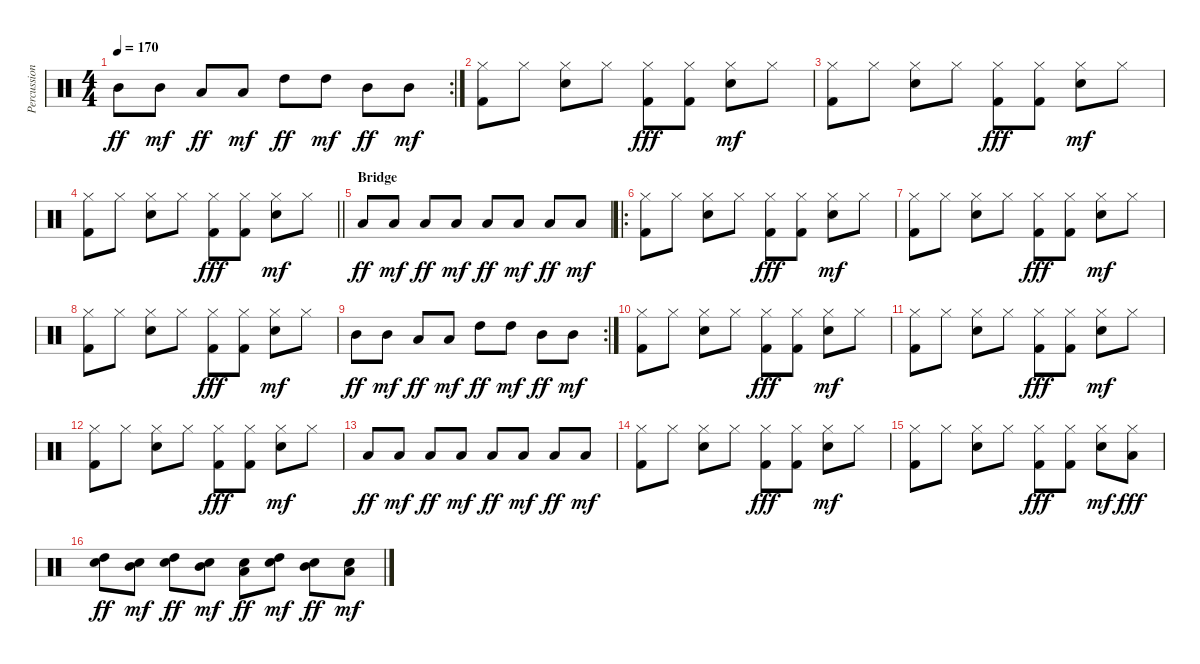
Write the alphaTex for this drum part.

\track ("Percussion" "Percussion") {instrument percussion}
\staff {score}
\articulation defaults
\rc 2
\ts (4 4)
\tempo 170
\clef neutral
\ks c "Mid Tom (hit)".8{dy ff} "Mid Tom (hit)".8{dy mf} "Low Tom (hit)".8{dy ff} "Low Tom (hit)".8{dy mf} "High Tom (hit)".8{dy ff} "High Tom (hit)".8{dy mf} "Mid Tom (hit)".8{dy ff} "Mid Tom (hit)".8{dy mf}
|
("Kick (hit) 2" "Hi-Hat (closed)").8 "Hi-Hat (closed)".8 ("Hi-Hat (closed)" "Electric Snare (hit)").8 "Hi-Hat (closed)".8 ("Hi-Hat (closed)" "Kick (hit) 2").8{dy fff} ("Hi-Hat (closed)" "Kick (hit) 2").8 ("Hi-Hat (closed)" "Electric Snare (hit)").8{dy mf} "Hi-Hat (closed)".8 |
("Kick (hit) 2" "Hi-Hat (closed)").8 "Hi-Hat (closed)".8 ("Hi-Hat (closed)" "Electric Snare (hit)").8 "Hi-Hat (closed)".8 ("Hi-Hat (closed)" "Kick (hit) 2").8{dy fff} ("Hi-Hat (closed)" "Kick (hit) 2").8 ("Hi-Hat (closed)" "Electric Snare (hit)").8{dy mf} "Hi-Hat (closed)".8 |
\barLineRight lightlight
("Kick (hit) 2" "Hi-Hat (closed)").8 "Hi-Hat (closed)".8 ("Hi-Hat (closed)" "Electric Snare (hit)").8 "Hi-Hat (closed)".8 ("Hi-Hat (closed)" "Kick (hit) 2").8{dy fff} ("Hi-Hat (closed)" "Kick (hit) 2").8 ("Hi-Hat (closed)" "Electric Snare (hit)").8{dy mf} "Hi-Hat (closed)".8 |
\section ("" "Bridge")
"Low Tom (hit)".8{dy ff} "Low Tom (hit)".8{dy mf} "Low Tom (hit)".8{dy ff} "Low Tom (hit)".8{dy mf} "Low Tom (hit)".8{dy ff} "Low Tom (hit)".8{dy mf} "Low Tom (hit)".8{dy ff} "Low Tom (hit)".8{dy mf} |
\ro
("Kick (hit) 2" "Hi-Hat (closed)").8 "Hi-Hat (closed)".8 ("Hi-Hat (closed)" "Electric Snare (hit)").8 "Hi-Hat (closed)".8 ("Hi-Hat (closed)" "Kick (hit) 2").8{dy fff} ("Hi-Hat (closed)" "Kick (hit) 2").8 ("Hi-Hat (closed)" "Electric Snare (hit)").8{dy mf} "Hi-Hat (closed)".8 |
("Kick (hit) 2" "Hi-Hat (closed)").8 "Hi-Hat (closed)".8 ("Hi-Hat (closed)" "Electric Snare (hit)").8 "Hi-Hat (closed)".8 ("Hi-Hat (closed)" "Kick (hit) 2").8{dy fff} ("Hi-Hat (closed)" "Kick (hit) 2").8 ("Hi-Hat (closed)" "Electric Snare (hit)").8{dy mf} "Hi-Hat (closed)".8 |
("Kick (hit) 2" "Hi-Hat (closed)").8 "Hi-Hat (closed)".8 ("Hi-Hat (closed)" "Electric Snare (hit)").8 "Hi-Hat (closed)".8 ("Hi-Hat (closed)" "Kick (hit) 2").8{dy fff} ("Hi-Hat (closed)" "Kick (hit) 2").8 ("Hi-Hat (closed)" "Electric Snare (hit)").8{dy mf} "Hi-Hat (closed)".8 |
\rc 2 "Mid Tom (hit)".8{dy ff} "Mid Tom (hit)".8{dy mf} "Low Tom (hit)".8{dy ff} "Low Tom (hit)".8{dy mf} "High Tom (hit)".8{dy ff} "High Tom (hit)".8{dy mf} "Mid Tom (hit)".8{dy ff} "Mid Tom (hit)".8{dy mf}
|
("Kick (hit) 2" "Hi-Hat (closed)").8 "Hi-Hat (closed)".8 ("Hi-Hat (closed)" "Electric Snare (hit)").8 "Hi-Hat (closed)".8 ("Hi-Hat (closed)" "Kick (hit) 2").8{dy fff} ("Hi-Hat (closed)" "Kick (hit) 2").8 ("Hi-Hat (closed)" "Electric Snare (hit)").8{dy mf} "Hi-Hat (closed)".8 |
("Kick (hit) 2" "Hi-Hat (closed)").8 "Hi-Hat (closed)".8 ("Hi-Hat (closed)" "Electric Snare (hit)").8 "Hi-Hat (closed)".8 ("Hi-Hat (closed)" "Kick (hit) 2").8{dy fff} ("Hi-Hat (closed)" "Kick (hit) 2").8 ("Hi-Hat (closed)" "Electric Snare (hit)").8{dy mf} "Hi-Hat (closed)".8 |
("Kick (hit) 2" "Hi-Hat (closed)").8 "Hi-Hat (closed)".8 ("Hi-Hat (closed)" "Electric Snare (hit)").8 "Hi-Hat (closed)".8 ("Hi-Hat (closed)" "Kick (hit) 2").8{dy fff} ("Hi-Hat (closed)" "Kick (hit) 2").8 ("Hi-Hat (closed)" "Electric Snare (hit)").8{dy mf} "Hi-Hat (closed)".8 |
"Low Tom (hit)".8{dy ff} "Low Tom (hit)".8{dy mf} "Low Tom (hit)".8{dy ff} "Low Tom (hit)".8{dy mf} "Low Tom (hit)".8{dy ff} "Low Tom (hit)".8{dy mf} "Low Tom (hit)".8{dy ff} "Low Tom (hit)".8{dy mf} |
("Kick (hit) 2" "Hi-Hat (closed)").8 "Hi-Hat (closed)".8 ("Hi-Hat (closed)" "Electric Snare (hit)").8 "Hi-Hat (closed)".8 ("Hi-Hat (closed)" "Kick (hit) 2").8{dy fff} ("Hi-Hat (closed)" "Kick (hit) 2").8 ("Hi-Hat (closed)" "Electric Snare (hit)").8{dy mf} "Hi-Hat (closed)".8 |
("Kick (hit) 2" "Hi-Hat (closed)").8 "Hi-Hat (closed)".8 ("Hi-Hat (closed)" "Electric Snare (hit)").8 "Hi-Hat (closed)".8 ("Hi-Hat (closed)" "Kick (hit) 2").8{dy fff} ("Hi-Hat (closed)" "Kick (hit) 2").8 ("Hi-Hat (closed)" "Electric Snare (hit)").8{dy mf} ("Hi-Hat (closed)" "Low Tom (hit)").8{dy fff} |
("Electric Snare (hit)" "High Tom (hit)").8{dy ff} ("Electric Snare (hit)" "Mid Tom (hit)").8{dy mf} ("Electric Snare (hit)" "High Tom (hit)").8{dy ff} ("Electric Snare (hit)" "Mid Tom (hit)").8{dy mf} ("Electric Snare (hit)" "Low Tom (hit)").8{dy ff} ("Electric Snare (hit)" "High Tom (hit)").8{dy mf} ("Electric Snare (hit)" "Mid Tom (hit)").8{dy ff} ("Electric Snare (hit)" "Low Tom (hit)").8{dy mf}
